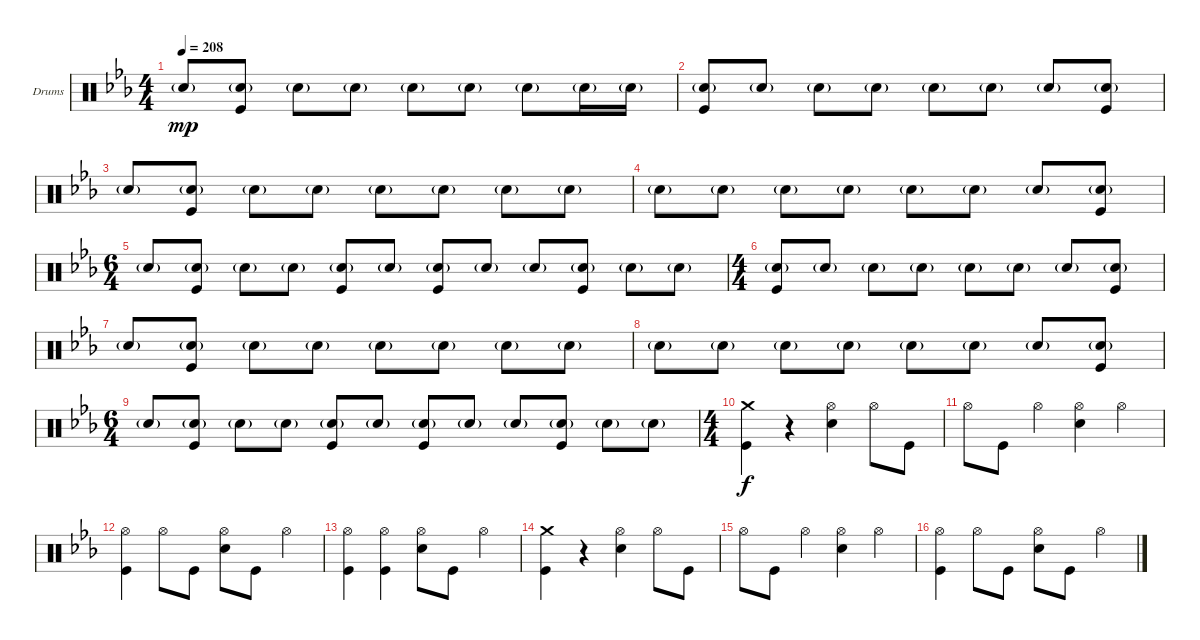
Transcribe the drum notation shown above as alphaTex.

\defaultSystemsLayout 4
\bracketExtendMode groupsimilarinstruments
\firstSystemTrackNameOrientation horizontal
\otherSystemsTrackNameOrientation horizontal
\track ("Drumkit" "Drums") {instrument percussion}
\staff {score}
\articulation defaults
\ts (4 4)
\tempo 208
\clef neutral
\ks eb "Snare (hit) 2"{g}.8{dy mp}
("Snare (hit) 2"{g} "Kick (hit)").8 "Snare (hit) 2"{g}.8 "Snare (hit) 2"{g}.8 "Snare (hit) 2"{g}.8 "Snare (hit) 2"{g}.8 "Snare (hit) 2"{g}.8 "Snare (hit) 2"{g}.16 "Snare (hit) 2"{g}.16 |
("Snare (hit) 2"{g} "Kick (hit)").8 "Snare (hit) 2"{g}.8 "Snare (hit) 2"{g}.8 "Snare (hit) 2"{g}.8 "Snare (hit) 2"{g}.8 "Snare (hit) 2"{g}.8 "Snare (hit) 2"{g}.8 ("Snare (hit) 2"{g} "Kick (hit)").8 |
"Snare (hit) 2"{g}.8 ("Snare (hit) 2"{g} "Kick (hit)").8 "Snare (hit) 2"{g}.8 "Snare (hit) 2"{g}.8 "Snare (hit) 2"{g}.8 "Snare (hit) 2"{g}.8 "Snare (hit) 2"{g}.8 "Snare (hit) 2"{g}.8 |
"Snare (hit) 2"{g}.8 "Snare (hit) 2"{g}.8 "Snare (hit) 2"{g}.8 "Snare (hit) 2"{g}.8 "Snare (hit) 2"{g}.8 "Snare (hit) 2"{g}.8 "Snare (hit) 2"{g}.8 ("Snare (hit) 2"{g} "Kick (hit)").8 |
\ts (6 4)
"Snare (hit) 2"{g}.8 ("Snare (hit) 2"{g} "Kick (hit)").8 "Snare (hit) 2"{g}.8 "Snare (hit) 2"{g}.8 ("Snare (hit) 2"{g} "Kick (hit)").8 "Snare (hit) 2"{g}.8 ("Snare (hit) 2"{g} "Kick (hit)").8 "Snare (hit) 2"{g}.8 "Snare (hit) 2"{g}.8 ("Snare (hit) 2"{g} "Kick (hit)").8 "Snare (hit) 2"{g}.8 "Snare (hit) 2"{g}.8 |
\ts (4 4)
("Snare (hit) 2"{g} "Kick (hit)").8 "Snare (hit) 2"{g}.8 "Snare (hit) 2"{g}.8 "Snare (hit) 2"{g}.8 "Snare (hit) 2"{g}.8 "Snare (hit) 2"{g}.8 "Snare (hit) 2"{g}.8 ("Snare (hit) 2"{g} "Kick (hit)").8 |
"Snare (hit) 2"{g}.8 ("Snare (hit) 2"{g} "Kick (hit)").8 "Snare (hit) 2"{g}.8 "Snare (hit) 2"{g}.8 "Snare (hit) 2"{g}.8 "Snare (hit) 2"{g}.8 "Snare (hit) 2"{g}.8 "Snare (hit) 2"{g}.8 |
"Snare (hit) 2"{g}.8 "Snare (hit) 2"{g}.8 "Snare (hit) 2"{g}.8 "Snare (hit) 2"{g}.8 "Snare (hit) 2"{g}.8 "Snare (hit) 2"{g}.8 "Snare (hit) 2"{g}.8 ("Snare (hit) 2"{g} "Kick (hit)").8 |
\ts (6 4)
"Snare (hit) 2"{g}.8 ("Snare (hit) 2"{g} "Kick (hit)").8 "Snare (hit) 2"{g}.8 "Snare (hit) 2"{g}.8 ("Snare (hit) 2"{g} "Kick (hit)").8 "Snare (hit) 2"{g}.8 ("Snare (hit) 2"{g} "Kick (hit)").8 "Snare (hit) 2"{g}.8 "Snare (hit) 2"{g}.8 ("Snare (hit) 2"{g} "Kick (hit)").8 "Snare (hit) 2"{g}.8 "Snare (hit) 2"{g}.8 |
\ts (4 4)
("Crash medium (hit)" "Kick (hit)").4{dy f} r.4 ("Hi-Hat (open)" "Snare (hit) 2").4 "Hi-Hat (open)".8 "Kick (hit)".8 |
"Hi-Hat (open)".8 "Kick (hit)".8 "Hi-Hat (open)".4 ("Hi-Hat (open)" "Snare (hit) 2").4 "Hi-Hat (open)".4 |
("Hi-Hat (open)" "Kick (hit)").4 "Hi-Hat (open)".8 "Kick (hit)".8 ("Hi-Hat (open)" "Snare (hit) 2").8 "Kick (hit)".8 "Hi-Hat (open)".4 |
("Hi-Hat (open)" "Kick (hit)").4 ("Hi-Hat (open)" "Kick (hit)").4 ("Hi-Hat (open)" "Snare (hit) 2").8 "Kick (hit)".8 "Hi-Hat (open)".4 |
("Crash medium (hit)" "Kick (hit)").4 r.4 ("Hi-Hat (open)" "Snare (hit) 2").4 "Hi-Hat (open)".8 "Kick (hit)".8 |
"Hi-Hat (open)".8 "Kick (hit)".8 "Hi-Hat (open)".4 ("Hi-Hat (open)" "Snare (hit) 2").4 "Hi-Hat (open)".4 |
("Hi-Hat (open)" "Kick (hit)").4 "Hi-Hat (open)".8 "Kick (hit)".8 ("Hi-Hat (open)" "Snare (hit) 2").8 "Kick (hit)".8 "Hi-Hat (open)".4
